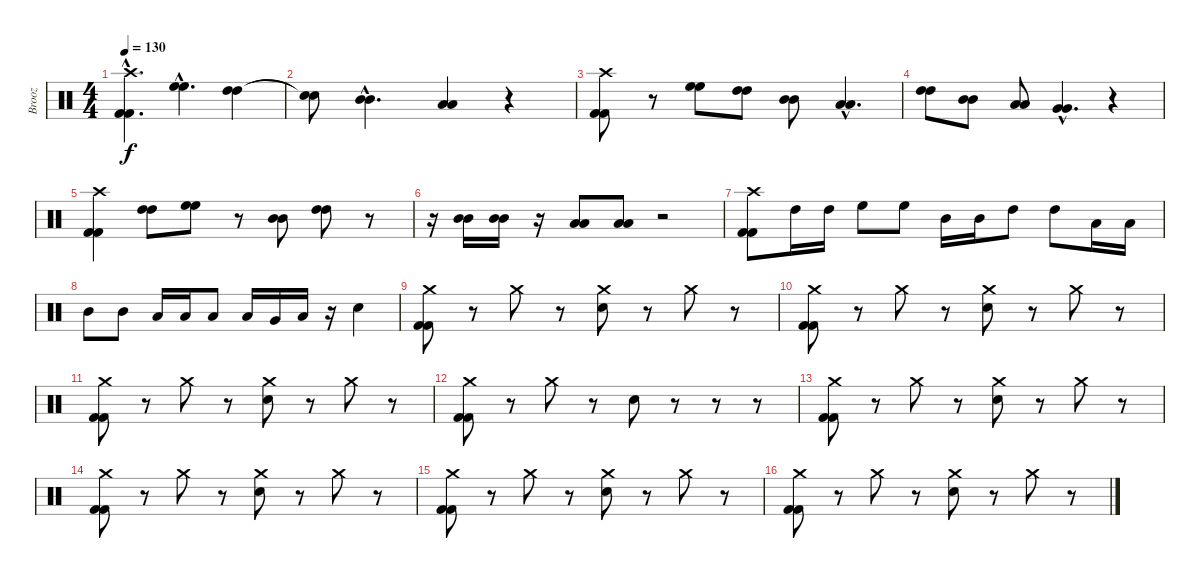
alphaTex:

\track ("Brooz" "Brooz") {instrument percussion}
\staff {score}
\articulation defaults
\ts (4 4)
\tempo 130
\clef neutral
\ks c
("Crash high (hit)"{hac} "Kick (hit) 2"{hac} "Kick (hit) 2"{hac}).4{d dy f} ("High Floor Tom (hit)"{hac} "High Floor Tom (hit)"{hac}).4{d} ("High Tom (hit)" "High Tom (hit)").4 |
("Snare (hit)"{t} "Snare (hit)"{t}).8 ("Mid Tom (hit)"{hac} "Mid Tom (hit)"{hac}).4{d} ("Low Tom (hit)" "Low Tom (hit)").4 r.4 |
("Crash high (hit)" "Kick (hit) 2" "Kick (hit) 2").8 r.8 ("High Floor Tom (hit)" "High Floor Tom (hit)").8 ("High Tom (hit)" "High Tom (hit)").8 ("Mid Tom (hit)" "Mid Tom (hit)").8 ("Low Tom (hit)"{hac} "Low Tom (hit)"{hac}).4{d} |
("High Tom (hit)" "High Tom (hit)").8 ("Mid Tom (hit)" "Mid Tom (hit)").8 ("Low Tom (hit)" "Low Tom (hit)").8 ("Very Low Tom (hit)"{hac} "Very Low Tom (hit)"{hac}).4{d} r.4 |
("Crash high (hit)" "Kick (hit) 2" "Kick (hit) 2").4 ("High Tom (hit)" "High Tom (hit)").8 ("High Floor Tom (hit)" "High Floor Tom (hit)").8 r.8 ("Mid Tom (hit)" "Mid Tom (hit)").8 ("High Tom (hit)" "High Tom (hit)").8 r.8 |
r.16 ("Mid Tom (hit)" "Mid Tom (hit)").16 ("Mid Tom (hit)" "Mid Tom (hit)").16 r.16 ("Low Tom (hit)" "Low Tom (hit)").8 ("Low Tom (hit)" "Low Tom (hit)").8 r.2 |
("Crash high (hit)" "Kick (hit) 2" "Kick (hit) 2").8 "High Tom (hit)".16 "High Tom (hit)".16 "High Floor Tom (hit)".8 "High Floor Tom (hit)".8 "Mid Tom (hit)".16 "Mid Tom (hit)".16 "High Tom (hit)".8 "High Tom (hit)".8 "Low Tom (hit)".16 "Low Tom (hit)".16 |
"Mid Tom (hit)".8 "Mid Tom (hit)".8 "Low Floor Tom (hit)".16 "Low Floor Tom (hit)".16 "Low Tom (hit)".8 "Low Tom (hit)".16 "Very Low Tom (hit)".16 "Low Floor Tom (hit)".16 r.16 "Electric Snare (hit)".4 |
("Kick (hit) 2" "Crash medium (hit)" "Kick (hit) 2").8 r.8 "Crash medium (hit)".8 r.8 ("Crash medium (hit)" "Electric Snare (hit)").8 r.8 "Crash medium (hit)".8 r.8 |
("Kick (hit) 2" "Crash medium (hit)" "Kick (hit) 2").8 r.8 "Crash medium (hit)".8 r.8 ("Crash medium (hit)" "Electric Snare (hit)").8 r.8 "Crash medium (hit)".8 r.8 |
("Kick (hit) 2" "Crash medium (hit)" "Kick (hit) 2").8 r.8 "Crash medium (hit)".8 r.8 ("Crash medium (hit)" "Electric Snare (hit)").8 r.8 "Crash medium (hit)".8 r.8 |
("Kick (hit) 2" "Crash medium (hit)" "Kick (hit) 2").8 r.8 "Crash medium (hit)".8 r.8 "Electric Snare (hit)".8 r.8 r.8 r.8 |
("Kick (hit) 2" "Crash medium (hit)" "Kick (hit) 2").8 r.8 "Crash medium (hit)".8 r.8 ("Crash medium (hit)" "Electric Snare (hit)").8 r.8 "Crash medium (hit)".8 r.8 |
("Kick (hit) 2" "Crash medium (hit)" "Kick (hit) 2").8 r.8 "Crash medium (hit)".8 r.8 ("Crash medium (hit)" "Electric Snare (hit)").8 r.8 "Crash medium (hit)".8 r.8 |
("Kick (hit) 2" "Crash medium (hit)" "Kick (hit) 2").8 r.8 "Crash medium (hit)".8 r.8 ("Crash medium (hit)" "Electric Snare (hit)").8 r.8 "Crash medium (hit)".8 r.8 |
("Kick (hit) 2" "Crash medium (hit)" "Kick (hit) 2").8 r.8 "Crash medium (hit)".8 r.8 ("Crash medium (hit)" "Electric Snare (hit)").8 r.8 "Crash medium (hit)".8 r.8
